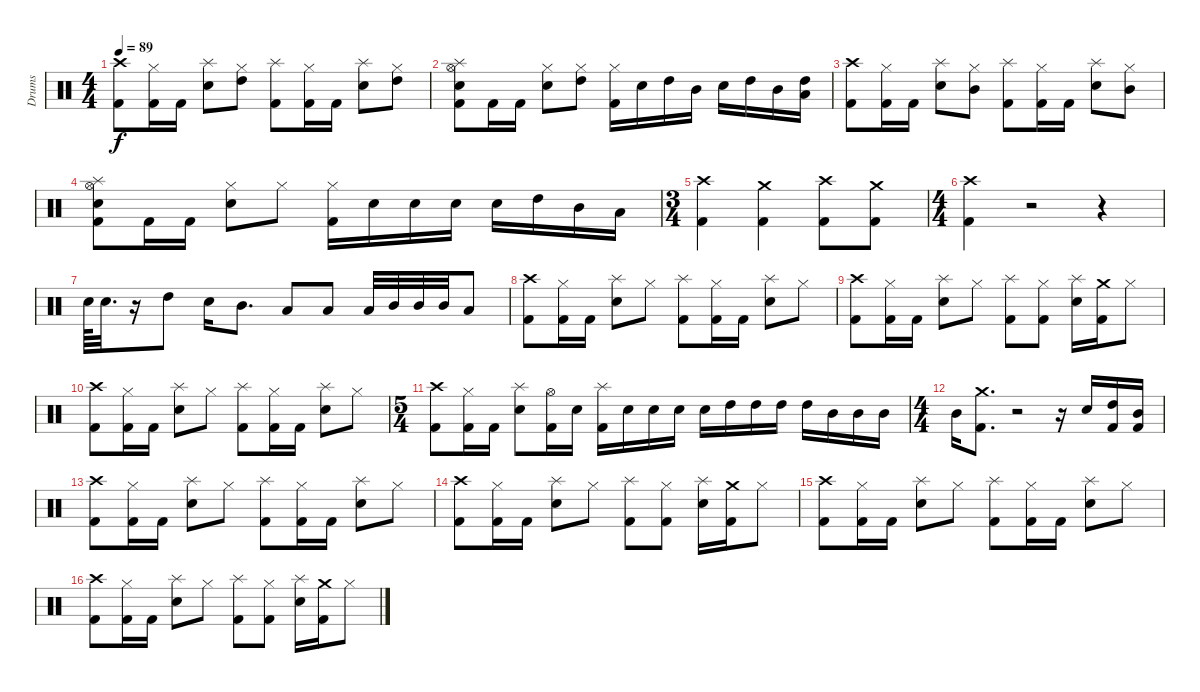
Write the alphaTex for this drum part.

\track ("Drums" "Drums") {instrument percussion}
\staff {score}
\articulation defaults
\ts (4 4)
\tempo 89
\clef neutral
\ks c
("Kick (hit) 2" "Crash high (hit)").8{dy f} ("Kick (hit) 2" "Hi-Hat (closed)").16 "Kick (hit) 2".16 ("Snare (hit) 2" "Splash (hit)").8 ("Hi-Hat (closed)" "High Tom (hit)").8 ("Kick (hit) 2" "Splash (hit)").8 ("Kick (hit) 2" "Hi-Hat (closed)").16 "Kick (hit) 2".16 ("Snare (hit) 2" "Splash (hit)").8 ("Hi-Hat (closed)" "High Tom (hit)").8 |
("Kick (hit) 2" "Snare (hit) 2" "Hi-Hat (open)" "Splash (hit)").8 "Kick (hit) 2".16 "Kick (hit) 2".16 ("Snare (hit) 2" "Hi-Hat (closed)").8 ("Hi-Hat (closed)" "High Tom (hit)").8 ("Kick (hit) 2" "Hi-Hat (closed)").16 "Snare (hit) 2".16 "High Tom (hit)".16 "Mid Tom (hit)".16 "Snare (hit) 2".16 "High Tom (hit)".16 "Mid Tom (hit)".16 ("Low Tom (hit)" "High Tom (hit)").16 |
("Kick (hit) 2" "Crash high (hit)").8 ("Kick (hit) 2" "Hi-Hat (closed)").16 "Kick (hit) 2".16 ("Snare (hit) 2" "Splash (hit)").8 ("Hi-Hat (closed)" "Mid Tom (hit)").8 ("Kick (hit) 2" "Splash (hit)").8 ("Kick (hit) 2" "Hi-Hat (closed)").16 "Kick (hit) 2".16 ("Snare (hit) 2" "Splash (hit)").8 ("Hi-Hat (closed)" "Mid Tom (hit)").8 |
("Kick (hit) 2" "Snare (hit) 2" "Hi-Hat (open)" "Splash (hit)").8 "Kick (hit) 2".16 "Kick (hit) 2".16 ("Snare (hit) 2" "Hi-Hat (closed)").8 "Hi-Hat (closed)".8 ("Kick (hit) 2" "Hi-Hat (closed)").16 "Snare (hit) 2".16 "Snare (hit) 2".16 "Snare (hit) 2".16 "Snare (hit) 2".16 "High Tom (hit)".16 "Mid Tom (hit)".16 "Low Tom (hit)".16 |
\ts (3 4)
("Kick (hit) 2" "Crash high (hit)").4 ("Kick (hit) 2" "Crash medium (hit)").4 ("Kick (hit) 2" "Crash high (hit)").8 ("Kick (hit) 2" "Crash medium (hit)").8 |
\ts (4 4)
("Kick (hit) 2" "Crash high (hit)").4 r.2 r.4 |
"Snare (hit) 2".64 "Snare (hit) 2".32{d} r.16 "High Tom (hit)".8 "Snare (hit) 2".16 "Mid Tom (hit)".8{d} "Low Tom (hit)".8 "Low Tom (hit)".8 "Low Tom (hit)".32 "Mid Tom (hit)".32 "Mid Tom (hit)".32 "Mid Tom (hit)".32 "Low Tom (hit)".8 |
("Kick (hit) 2" "Crash high (hit)").8 ("Kick (hit) 2" "Hi-Hat (closed)").16 "Kick (hit) 2".16 ("Snare (hit) 2" "Splash (hit)").8 "Hi-Hat (closed)".8 ("Kick (hit) 2" "Splash (hit)").8 ("Kick (hit) 2" "Hi-Hat (closed)").16 "Kick (hit) 2".16 ("Snare (hit) 2" "Splash (hit)").8 "Hi-Hat (closed)".8 |
("Kick (hit) 2" "Crash high (hit)").8 ("Kick (hit) 2" "Hi-Hat (closed)").16 "Kick (hit) 2".16 ("Snare (hit) 2" "Splash (hit)").8 "Hi-Hat (closed)".8 ("Kick (hit) 2" "Splash (hit)").8 ("Kick (hit) 2" "Hi-Hat (closed)").8 ("Snare (hit) 2" "Splash (hit)").16 ("Kick (hit) 2" "Crash medium (hit)").16 "Hi-Hat (closed)".8 |
("Kick (hit) 2" "Crash high (hit)").8 ("Kick (hit) 2" "Hi-Hat (closed)").16 "Kick (hit) 2".16 ("Snare (hit) 2" "Splash (hit)").8 "Hi-Hat (closed)".8 ("Kick (hit) 2" "Splash (hit)").8 ("Kick (hit) 2" "Hi-Hat (closed)").16 "Kick (hit) 2".16 ("Snare (hit) 2" "Splash (hit)").8 "Hi-Hat (closed)".8 |
\ts (5 4)
("Kick (hit) 2" "Crash high (hit)").8 ("Kick (hit) 2" "Hi-Hat (closed)").16 "Kick (hit) 2".16 ("Snare (hit) 2" "Splash (hit)").8 ("Kick (hit) 2" "Hi-Hat (open)").16 "Snare (hit) 2".16 ("Kick (hit) 2" "Splash (hit)").16 "Snare (hit) 2".16 "Snare (hit) 2".16 "Snare (hit) 2".16 "Snare (hit) 2".16 "High Tom (hit)".16 "High Tom (hit)".16 "High Tom (hit)".16 "High Tom (hit)".16 "Mid Tom (hit)".16 "Mid Tom (hit)".16 "Mid Tom (hit)".16 |
\ts (4 4)
"Mid Tom (hit)".16 ("Kick (hit) 2" "Crash medium (hit)").8{d} r.2 r.16 "Snare (hit) 2".16 ("Kick (hit) 2" "High Tom (hit)").16 ("Kick (hit) 2" "Mid Tom (hit)").16 |
("Kick (hit) 2" "Crash high (hit)").8 ("Kick (hit) 2" "Hi-Hat (closed)").16 "Kick (hit) 2".16 ("Snare (hit) 2" "Splash (hit)").8 "Hi-Hat (closed)".8 ("Kick (hit) 2" "Splash (hit)").8 ("Kick (hit) 2" "Hi-Hat (closed)").16 "Kick (hit) 2".16 ("Snare (hit) 2" "Splash (hit)").8 "Hi-Hat (closed)".8 |
("Kick (hit) 2" "Crash high (hit)").8 ("Kick (hit) 2" "Hi-Hat (closed)").16 "Kick (hit) 2".16 ("Snare (hit) 2" "Splash (hit)").8 "Hi-Hat (closed)".8 ("Kick (hit) 2" "Splash (hit)").8 ("Kick (hit) 2" "Hi-Hat (closed)").8 ("Snare (hit) 2" "Splash (hit)").16 ("Kick (hit) 2" "Crash medium (hit)").16 "Hi-Hat (closed)".8 |
("Kick (hit) 2" "Crash high (hit)").8 ("Kick (hit) 2" "Hi-Hat (closed)").16 "Kick (hit) 2".16 ("Snare (hit) 2" "Splash (hit)").8 "Hi-Hat (closed)".8 ("Kick (hit) 2" "Splash (hit)").8 ("Kick (hit) 2" "Hi-Hat (closed)").16 "Kick (hit) 2".16 ("Snare (hit) 2" "Splash (hit)").8 "Hi-Hat (closed)".8 |
("Kick (hit) 2" "Crash high (hit)").8 ("Kick (hit) 2" "Hi-Hat (closed)").16 "Kick (hit) 2".16 ("Snare (hit) 2" "Splash (hit)").8 "Hi-Hat (closed)".8 ("Kick (hit) 2" "Splash (hit)").8 ("Kick (hit) 2" "Hi-Hat (closed)").8 ("Snare (hit) 2" "Splash (hit)").16 ("Kick (hit) 2" "Crash medium (hit)").16 "Hi-Hat (closed)".8
